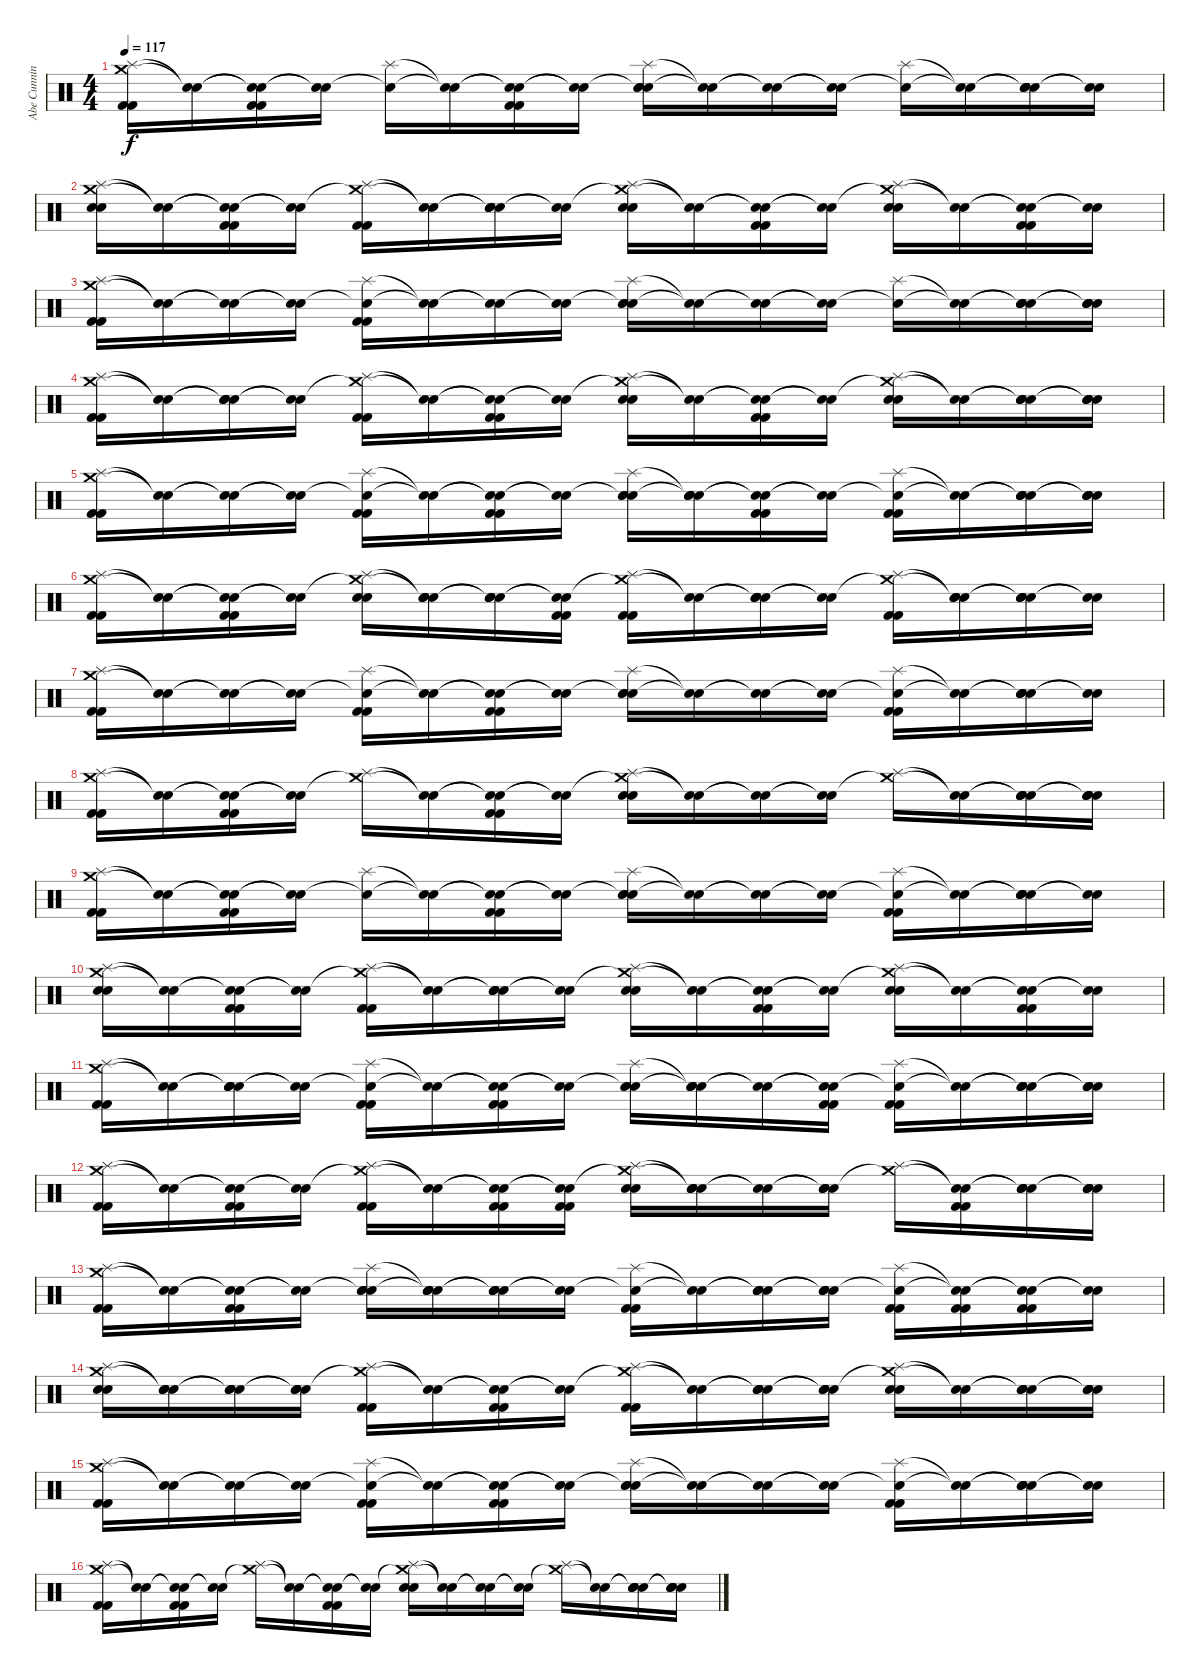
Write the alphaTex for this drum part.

\track ("Abe Cunningham" "Abe Cunnin") {instrument percussion}
\staff {score}
\articulation defaults
\ts (4 4)
\tempo 117
\clef neutral
\ks c
("Splash (hit)" "Crash medium (hit)" "Kick (hit) 2" "Kick (hit) 2").16{dy f} ("Snare (hit)"{t} "Snare (hit)"{t}).16 ("Snare (hit)"{t} "Snare (hit)"{t} "Kick (hit) 2" "Kick (hit) 2").16 ("Snare (hit)"{t} "Snare (hit)"{t}).16 ("Splash (hit)" "Snare (hit)"{t}).16 ("Snare (hit)"{t} "Snare (hit)"{t}).16 ("Snare (hit)"{t} "Snare (hit)"{t} "Kick (hit) 2" "Kick (hit) 2").16 ("Snare (hit)"{t} "Snare (hit)"{t}).16 ("Splash (hit)" "Snare (hit)"{t} "Electric Snare (hit)" "Electric Snare (hit)").16 ("Snare (hit)"{t} "Snare (hit)"{t}).16 ("Snare (hit)"{t} "Snare (hit)"{t}).16 ("Snare (hit)"{t} "Snare (hit)"{t}).16 ("Splash (hit)" "Snare (hit)"{t}).16 ("Snare (hit)"{t} "Snare (hit)"{t}).16 ("Snare (hit)"{t} "Snare (hit)"{t} "Electric Snare (hit)" "Electric Snare (hit)").16 ("Snare (hit)"{t} "Snare (hit)"{t}).16 |
("Splash (hit)" "Crash medium (hit)" "Electric Snare (hit)" "Electric Snare (hit)").16 ("Snare (hit)"{t} "Snare (hit)"{t}).16 ("Snare (hit)"{t} "Snare (hit)"{t} "Kick (hit) 2" "Kick (hit) 2").16 ("Snare (hit)"{t} "Snare (hit)"{t}).16 ("Splash (hit)" "Crash medium (hit)"{t} "Kick (hit) 2" "Kick (hit) 2").16 ("Snare (hit)"{t} "Snare (hit)"{t}).16 ("Snare (hit)"{t} "Snare (hit)"{t} "Electric Snare (hit)" "Electric Snare (hit)").16 ("Snare (hit)"{t} "Snare (hit)"{t}).16 ("Splash (hit)" "Crash medium (hit)"{t} "Electric Snare (hit)" "Electric Snare (hit)").16 ("Snare (hit)"{t} "Snare (hit)"{t}).16 ("Snare (hit)"{t} "Snare (hit)"{t} "Kick (hit) 2" "Kick (hit) 2").16 ("Snare (hit)"{t} "Snare (hit)"{t}).16 ("Splash (hit)" "Crash medium (hit)"{t} "Electric Snare (hit)" "Electric Snare (hit)").16 ("Snare (hit)"{t} "Snare (hit)"{t}).16 ("Snare (hit)"{t} "Snare (hit)"{t} "Kick (hit) 2" "Kick (hit) 2").16 ("Snare (hit)"{t} "Snare (hit)"{t}).16 |
("Splash (hit)" "Crash medium (hit)" "Kick (hit) 2" "Kick (hit) 2").16 ("Snare (hit)"{t} "Snare (hit)"{t}).16 ("Snare (hit)"{t} "Snare (hit)"{t}).16 ("Snare (hit)"{t} "Snare (hit)"{t}).16 ("Splash (hit)" "Snare (hit)"{t} "Kick (hit) 2" "Kick (hit) 2").16 ("Snare (hit)"{t} "Snare (hit)"{t}).16 ("Snare (hit)"{t} "Snare (hit)"{t}).16 ("Snare (hit)"{t} "Snare (hit)"{t}).16 ("Splash (hit)" "Snare (hit)"{t} "Electric Snare (hit)" "Electric Snare (hit)").16 ("Snare (hit)"{t} "Snare (hit)"{t}).16 ("Snare (hit)"{t} "Snare (hit)"{t}).16 ("Snare (hit)"{t} "Snare (hit)"{t}).16 ("Splash (hit)" "Snare (hit)"{t}).16 ("Snare (hit)"{t} "Snare (hit)"{t}).16 ("Snare (hit)"{t} "Snare (hit)"{t} "Electric Snare (hit)" "Electric Snare (hit)").16 ("Snare (hit)"{t} "Snare (hit)"{t} "Electric Snare (hit)" "Electric Snare (hit)").16 |
("Splash (hit)" "Crash medium (hit)" "Kick (hit) 2" "Kick (hit) 2").16 ("Snare (hit)"{t} "Snare (hit)"{t}).16 ("Snare (hit)"{t} "Snare (hit)"{t} "Electric Snare (hit)" "Electric Snare (hit)").16 ("Snare (hit)"{t} "Snare (hit)"{t}).16 ("Splash (hit)" "Crash medium (hit)"{t} "Kick (hit) 2" "Kick (hit) 2").16 ("Snare (hit)"{t} "Snare (hit)"{t}).16 ("Snare (hit)"{t} "Snare (hit)"{t} "Kick (hit) 2" "Kick (hit) 2").16 ("Snare (hit)"{t} "Snare (hit)"{t}).16 ("Splash (hit)" "Crash medium (hit)"{t} "Electric Snare (hit)" "Electric Snare (hit)").16 ("Snare (hit)"{t} "Snare (hit)"{t}).16 ("Snare (hit)"{t} "Snare (hit)"{t} "Kick (hit) 2" "Kick (hit) 2").16 ("Snare (hit)"{t} "Snare (hit)"{t}).16 ("Splash (hit)" "Crash medium (hit)"{t} "Electric Snare (hit)" "Electric Snare (hit)").16 ("Snare (hit)"{t} "Snare (hit)"{t}).16 ("Snare (hit)"{t} "Snare (hit)"{t} "Electric Snare (hit)" "Electric Snare (hit)").16 ("Snare (hit)"{t} "Snare (hit)"{t} "Electric Snare (hit)" "Electric Snare (hit)").16 |
("Splash (hit)" "Crash medium (hit)" "Kick (hit) 2" "Kick (hit) 2").16 ("Snare (hit)"{t} "Snare (hit)"{t}).16 ("Snare (hit)"{t} "Snare (hit)"{t}).16 ("Snare (hit)"{t} "Snare (hit)"{t}).16 ("Splash (hit)" "Snare (hit)"{t} "Kick (hit) 2" "Kick (hit) 2").16 ("Snare (hit)"{t} "Snare (hit)"{t}).16 ("Snare (hit)"{t} "Snare (hit)"{t} "Kick (hit) 2" "Kick (hit) 2").16 ("Snare (hit)"{t} "Snare (hit)"{t}).16 ("Splash (hit)" "Snare (hit)"{t} "Electric Snare (hit)" "Electric Snare (hit)").16 ("Snare (hit)"{t} "Snare (hit)"{t} "Electric Snare (hit)" "Electric Snare (hit)").16 ("Snare (hit)"{t} "Snare (hit)"{t} "Kick (hit) 2" "Kick (hit) 2").16 ("Snare (hit)"{t} "Snare (hit)"{t}).16 ("Splash (hit)" "Snare (hit)"{t} "Kick (hit) 2" "Kick (hit) 2").16 ("Snare (hit)"{t} "Snare (hit)"{t}).16 ("Snare (hit)"{t} "Snare (hit)"{t} "Electric Snare (hit)" "Electric Snare (hit)").16 ("Snare (hit)"{t} "Snare (hit)"{t} "Electric Snare (hit)" "Electric Snare (hit)").16 |
("Splash (hit)" "Crash medium (hit)" "Kick (hit) 2" "Kick (hit) 2").16 ("Snare (hit)"{t} "Snare (hit)"{t}).16 ("Snare (hit)"{t} "Snare (hit)"{t} "Kick (hit) 2" "Kick (hit) 2").16 ("Snare (hit)"{t} "Snare (hit)"{t}).16 ("Splash (hit)" "Crash medium (hit)"{t} "Electric Snare (hit)" "Electric Snare (hit)").16 ("Snare (hit)"{t} "Snare (hit)"{t} "Electric Snare (hit)" "Electric Snare (hit)").16 ("Snare (hit)"{t} "Snare (hit)"{t} "Electric Snare (hit)" "Electric Snare (hit)").16 ("Snare (hit)"{t} "Snare (hit)"{t} "Kick (hit) 2" "Kick (hit) 2").16 ("Splash (hit)" "Crash medium (hit)"{t} "Kick (hit) 2" "Kick (hit) 2").16 ("Snare (hit)"{t} "Snare (hit)"{t}).16 ("Snare (hit)"{t} "Snare (hit)"{t} "Electric Snare (hit)" "Electric Snare (hit)").16 ("Snare (hit)"{t} "Snare (hit)"{t}).16 ("Splash (hit)" "Crash medium (hit)"{t} "Kick (hit) 2" "Kick (hit) 2").16 ("Snare (hit)"{t} "Snare (hit)"{t} "Electric Snare (hit)" "Electric Snare (hit)").16 ("Snare (hit)"{t} "Snare (hit)"{t} "Electric Snare (hit)" "Electric Snare (hit)").16 ("Snare (hit)"{t} "Snare (hit)"{t}).16 |
("Splash (hit)" "Crash medium (hit)" "Kick (hit) 2" "Kick (hit) 2").16 ("Snare (hit)"{t} "Snare (hit)"{t}).16 ("Snare (hit)"{t} "Snare (hit)"{t}).16 ("Snare (hit)"{t} "Snare (hit)"{t}).16 ("Splash (hit)" "Snare (hit)"{t} "Kick (hit) 2" "Kick (hit) 2").16 ("Snare (hit)"{t} "Snare (hit)"{t}).16 ("Snare (hit)"{t} "Snare (hit)"{t} "Kick (hit) 2" "Kick (hit) 2").16 ("Snare (hit)"{t} "Snare (hit)"{t}).16 ("Splash (hit)" "Snare (hit)"{t} "Electric Snare (hit)" "Electric Snare (hit)").16 ("Snare (hit)"{t} "Snare (hit)"{t}).16 ("Snare (hit)"{t} "Snare (hit)"{t}).16 ("Snare (hit)"{t} "Snare (hit)"{t}).16 ("Splash (hit)" "Snare (hit)"{t} "Kick (hit) 2" "Kick (hit) 2").16 ("Snare (hit)"{t} "Snare (hit)"{t}).16 ("Snare (hit)"{t} "Snare (hit)"{t} "Electric Snare (hit)" "Electric Snare (hit)").16 ("Snare (hit)"{t} "Snare (hit)"{t}).16 |
("Splash (hit)" "Crash medium (hit)" "Kick (hit) 2" "Kick (hit) 2").16 ("Snare (hit)"{t} "Snare (hit)"{t}).16 ("Snare (hit)"{t} "Snare (hit)"{t} "Kick (hit) 2" "Kick (hit) 2").16 ("Snare (hit)"{t} "Snare (hit)"{t}).16 ("Splash (hit)" "Crash medium (hit)"{t}).16 ("Snare (hit)"{t} "Snare (hit)"{t}).16 ("Snare (hit)"{t} "Snare (hit)"{t} "Kick (hit) 2" "Kick (hit) 2").16 ("Snare (hit)"{t} "Snare (hit)"{t}).16 ("Splash (hit)" "Crash medium (hit)"{t} "Electric Snare (hit)" "Electric Snare (hit)").16 ("Snare (hit)"{t} "Snare (hit)"{t}).16 ("Snare (hit)"{t} "Snare (hit)"{t}).16 ("Snare (hit)"{t} "Snare (hit)"{t}).16 ("Splash (hit)" "Crash medium (hit)"{t}).16 ("Snare (hit)"{t} "Snare (hit)"{t}).16 ("Snare (hit)"{t} "Snare (hit)"{t} "Electric Snare (hit)" "Electric Snare (hit)").16 ("Snare (hit)"{t} "Snare (hit)"{t} "Electric Snare (hit)" "Electric Snare (hit)").16 |
("Splash (hit)" "Crash medium (hit)" "Kick (hit) 2" "Kick (hit) 2").16 ("Snare (hit)"{t} "Snare (hit)"{t}).16 ("Snare (hit)"{t} "Snare (hit)"{t} "Kick (hit) 2" "Kick (hit) 2").16 ("Snare (hit)"{t} "Snare (hit)"{t}).16 ("Splash (hit)" "Snare (hit)"{t}).16 ("Snare (hit)"{t} "Snare (hit)"{t}).16 ("Snare (hit)"{t} "Snare (hit)"{t} "Kick (hit) 2" "Kick (hit) 2").16 ("Snare (hit)"{t} "Snare (hit)"{t}).16 ("Splash (hit)" "Snare (hit)"{t} "Electric Snare (hit)" "Electric Snare (hit)").16 ("Snare (hit)"{t} "Snare (hit)"{t}).16 ("Snare (hit)"{t} "Snare (hit)"{t}).16 ("Snare (hit)"{t} "Snare (hit)"{t}).16 ("Splash (hit)" "Snare (hit)"{t} "Kick (hit) 2" "Kick (hit) 2").16 ("Snare (hit)"{t} "Snare (hit)"{t}).16 ("Snare (hit)"{t} "Snare (hit)"{t} "Electric Snare (hit)" "Electric Snare (hit)").16 ("Snare (hit)"{t} "Snare (hit)"{t}).16 |
("Splash (hit)" "Crash medium (hit)" "Electric Snare (hit)" "Electric Snare (hit)").16 ("Snare (hit)"{t} "Snare (hit)"{t}).16 ("Snare (hit)"{t} "Snare (hit)"{t} "Kick (hit) 2" "Kick (hit) 2").16 ("Snare (hit)"{t} "Snare (hit)"{t}).16 ("Splash (hit)" "Crash medium (hit)"{t} "Kick (hit) 2" "Kick (hit) 2").16 ("Snare (hit)"{t} "Snare (hit)"{t}).16 ("Snare (hit)"{t} "Snare (hit)"{t} "Electric Snare (hit)" "Electric Snare (hit)").16 ("Snare (hit)"{t} "Snare (hit)"{t}).16 ("Splash (hit)" "Crash medium (hit)"{t} "Electric Snare (hit)" "Electric Snare (hit)").16 ("Snare (hit)"{t} "Snare (hit)"{t}).16 ("Snare (hit)"{t} "Snare (hit)"{t} "Kick (hit) 2" "Kick (hit) 2").16 ("Snare (hit)"{t} "Snare (hit)"{t}).16 ("Splash (hit)" "Crash medium (hit)"{t} "Electric Snare (hit)" "Electric Snare (hit)").16 ("Snare (hit)"{t} "Snare (hit)"{t}).16 ("Snare (hit)"{t} "Snare (hit)"{t} "Kick (hit) 2" "Kick (hit) 2").16 ("Snare (hit)"{t} "Snare (hit)"{t}).16 |
("Splash (hit)" "Crash medium (hit)" "Kick (hit) 2" "Kick (hit) 2").16 ("Snare (hit)"{t} "Snare (hit)"{t}).16 ("Snare (hit)"{t} "Snare (hit)"{t} "Electric Snare (hit)" "Electric Snare (hit)").16 ("Snare (hit)"{t} "Snare (hit)"{t}).16 ("Splash (hit)" "Snare (hit)"{t} "Kick (hit) 2" "Kick (hit) 2").16 ("Snare (hit)"{t} "Snare (hit)"{t}).16 ("Snare (hit)"{t} "Snare (hit)"{t} "Kick (hit) 2" "Kick (hit) 2").16 ("Snare (hit)"{t} "Snare (hit)"{t}).16 ("Splash (hit)" "Snare (hit)"{t} "Electric Snare (hit)" "Electric Snare (hit)").16 ("Snare (hit)"{t} "Snare (hit)"{t} "Electric Snare (hit)" "Electric Snare (hit)").16 ("Snare (hit)"{t} "Snare (hit)"{t}).16 ("Snare (hit)"{t} "Snare (hit)"{t} "Kick (hit) 2" "Kick (hit) 2").16 ("Splash (hit)" "Snare (hit)"{t} "Kick (hit) 2" "Kick (hit) 2").16 ("Snare (hit)"{t} "Snare (hit)"{t}).16 ("Snare (hit)"{t} "Snare (hit)"{t} "Electric Snare (hit)" "Electric Snare (hit)").16 ("Snare (hit)"{t} "Snare (hit)"{t} "Electric Snare (hit)" "Electric Snare (hit)").16 |
("Splash (hit)" "Crash medium (hit)" "Kick (hit) 2" "Kick (hit) 2").16 ("Snare (hit)"{t} "Snare (hit)"{t}).16 ("Snare (hit)"{t} "Snare (hit)"{t} "Kick (hit) 2" "Kick (hit) 2").16 ("Snare (hit)"{t} "Snare (hit)"{t}).16 ("Splash (hit)" "Crash medium (hit)"{t} "Kick (hit) 2" "Kick (hit) 2").16 ("Snare (hit)"{t} "Snare (hit)"{t}).16 ("Snare (hit)"{t} "Snare (hit)"{t} "Kick (hit) 2" "Kick (hit) 2").16 ("Snare (hit)"{t} "Snare (hit)"{t} "Kick (hit) 2" "Kick (hit) 2").16 ("Splash (hit)" "Crash medium (hit)"{t} "Electric Snare (hit)" "Electric Snare (hit)").16 ("Snare (hit)"{t} "Snare (hit)"{t} "Electric Snare (hit)" "Electric Snare (hit)").16 ("Snare (hit)"{t} "Snare (hit)"{t}).16 ("Snare (hit)"{t} "Snare (hit)"{t} "Electric Snare (hit)" "Electric Snare (hit)").16 ("Splash (hit)" "Crash medium (hit)"{t}).16 ("Snare (hit)"{t} "Snare (hit)"{t} "Kick (hit) 2" "Kick (hit) 2").16 ("Snare (hit)"{t} "Snare (hit)"{t} "Electric Snare (hit)" "Electric Snare (hit)").16 ("Snare (hit)"{t} "Snare (hit)"{t} "Electric Snare (hit)" "Electric Snare (hit)").16 |
("Splash (hit)" "Crash medium (hit)" "Kick (hit) 2" "Kick (hit) 2").16 ("Snare (hit)"{t} "Snare (hit)"{t}).16 ("Snare (hit)"{t} "Snare (hit)"{t} "Kick (hit) 2" "Kick (hit) 2").16 ("Snare (hit)"{t} "Snare (hit)"{t}).16 ("Splash (hit)" "Snare (hit)"{t} "Electric Snare (hit)" "Electric Snare (hit)").16 ("Snare (hit)"{t} "Snare (hit)"{t} "Electric Snare (hit)" "Electric Snare (hit)").16 ("Snare (hit)"{t} "Snare (hit)"{t} "Electric Snare (hit)" "Electric Snare (hit)").16 ("Snare (hit)"{t} "Snare (hit)"{t}).16 ("Splash (hit)" "Snare (hit)"{t} "Kick (hit) 2" "Kick (hit) 2").16 ("Snare (hit)"{t} "Snare (hit)"{t}).16 ("Snare (hit)"{t} "Snare (hit)"{t} "Electric Snare (hit)" "Electric Snare (hit)").16 ("Snare (hit)"{t} "Snare (hit)"{t} "Electric Snare (hit)" "Electric Snare (hit)").16 ("Splash (hit)" "Snare (hit)"{t} "Kick (hit) 2" "Kick (hit) 2").16 ("Snare (hit)"{t} "Snare (hit)"{t} "Kick (hit) 2" "Kick (hit) 2").16 ("Snare (hit)"{t} "Snare (hit)"{t} "Kick (hit) 2" "Kick (hit) 2").16 ("Snare (hit)"{t} "Snare (hit)"{t}).16 |
("Splash (hit)" "Crash medium (hit)" "Electric Snare (hit)" "Electric Snare (hit)").16 ("Snare (hit)"{t} "Snare (hit)"{t} "Electric Snare (hit)" "Electric Snare (hit)").16 ("Snare (hit)"{t} "Snare (hit)"{t} "Electric Snare (hit)" "Electric Snare (hit)").16 ("Snare (hit)"{t} "Snare (hit)"{t} "Electric Snare (hit)" "Electric Snare (hit)").16 ("Splash (hit)" "Crash medium (hit)"{t} "Kick (hit) 2" "Kick (hit) 2").16 ("Snare (hit)"{t} "Snare (hit)"{t}).16 ("Snare (hit)"{t} "Snare (hit)"{t} "Kick (hit) 2" "Kick (hit) 2").16 ("Snare (hit)"{t} "Snare (hit)"{t}).16 ("Splash (hit)" "Crash medium (hit)"{t} "Kick (hit) 2" "Kick (hit) 2").16 ("Snare (hit)"{t} "Snare (hit)"{t}).16 ("Snare (hit)"{t} "Snare (hit)"{t} "Electric Snare (hit)" "Electric Snare (hit)").16 ("Snare (hit)"{t} "Snare (hit)"{t} "Electric Snare (hit)" "Electric Snare (hit)").16 ("Splash (hit)" "Crash medium (hit)"{t} "Electric Snare (hit)" "Electric Snare (hit)").16 ("Snare (hit)"{t} "Snare (hit)"{t}).16 ("Snare (hit)"{t} "Snare (hit)"{t} "Electric Snare (hit)" "Electric Snare (hit)").16 ("Snare (hit)"{t} "Snare (hit)"{t} "Electric Snare (hit)" "Electric Snare (hit)").16 |
("Splash (hit)" "Crash medium (hit)" "Kick (hit) 2" "Kick (hit) 2").16 ("Snare (hit)"{t} "Snare (hit)"{t}).16 ("Snare (hit)"{t} "Snare (hit)"{t}).16 ("Snare (hit)"{t} "Snare (hit)"{t}).16 ("Splash (hit)" "Snare (hit)"{t} "Kick (hit) 2" "Kick (hit) 2").16 ("Snare (hit)"{t} "Snare (hit)"{t}).16 ("Snare (hit)"{t} "Snare (hit)"{t} "Kick (hit) 2" "Kick (hit) 2").16 ("Snare (hit)"{t} "Snare (hit)"{t}).16 ("Splash (hit)" "Snare (hit)"{t} "Electric Snare (hit)" "Electric Snare (hit)").16 ("Snare (hit)"{t} "Snare (hit)"{t}).16 ("Snare (hit)"{t} "Snare (hit)"{t}).16 ("Snare (hit)"{t} "Snare (hit)"{t}).16 ("Splash (hit)" "Snare (hit)"{t} "Kick (hit) 2" "Kick (hit) 2").16 ("Snare (hit)"{t} "Snare (hit)"{t}).16 ("Snare (hit)"{t} "Snare (hit)"{t} "Electric Snare (hit)" "Electric Snare (hit)").16 ("Snare (hit)"{t} "Snare (hit)"{t}).16 |
("Splash (hit)" "Crash medium (hit)" "Kick (hit) 2" "Kick (hit) 2").16 ("Snare (hit)"{t} "Snare (hit)"{t}).16 ("Snare (hit)"{t} "Snare (hit)"{t} "Kick (hit) 2" "Kick (hit) 2").16 ("Snare (hit)"{t} "Snare (hit)"{t}).16 ("Splash (hit)" "Crash medium (hit)"{t}).16 ("Snare (hit)"{t} "Snare (hit)"{t}).16 ("Snare (hit)"{t} "Snare (hit)"{t} "Kick (hit) 2" "Kick (hit) 2").16 ("Snare (hit)"{t} "Snare (hit)"{t}).16 ("Splash (hit)" "Crash medium (hit)"{t} "Electric Snare (hit)" "Electric Snare (hit)").16 ("Snare (hit)"{t} "Snare (hit)"{t}).16 ("Snare (hit)"{t} "Snare (hit)"{t}).16 ("Snare (hit)"{t} "Snare (hit)"{t}).16 ("Splash (hit)" "Crash medium (hit)"{t}).16 ("Snare (hit)"{t} "Snare (hit)"{t}).16 ("Snare (hit)"{t} "Snare (hit)"{t} "Electric Snare (hit)" "Electric Snare (hit)").16 ("Snare (hit)"{t} "Snare (hit)"{t} "Electric Snare (hit)" "Electric Snare (hit)").16
